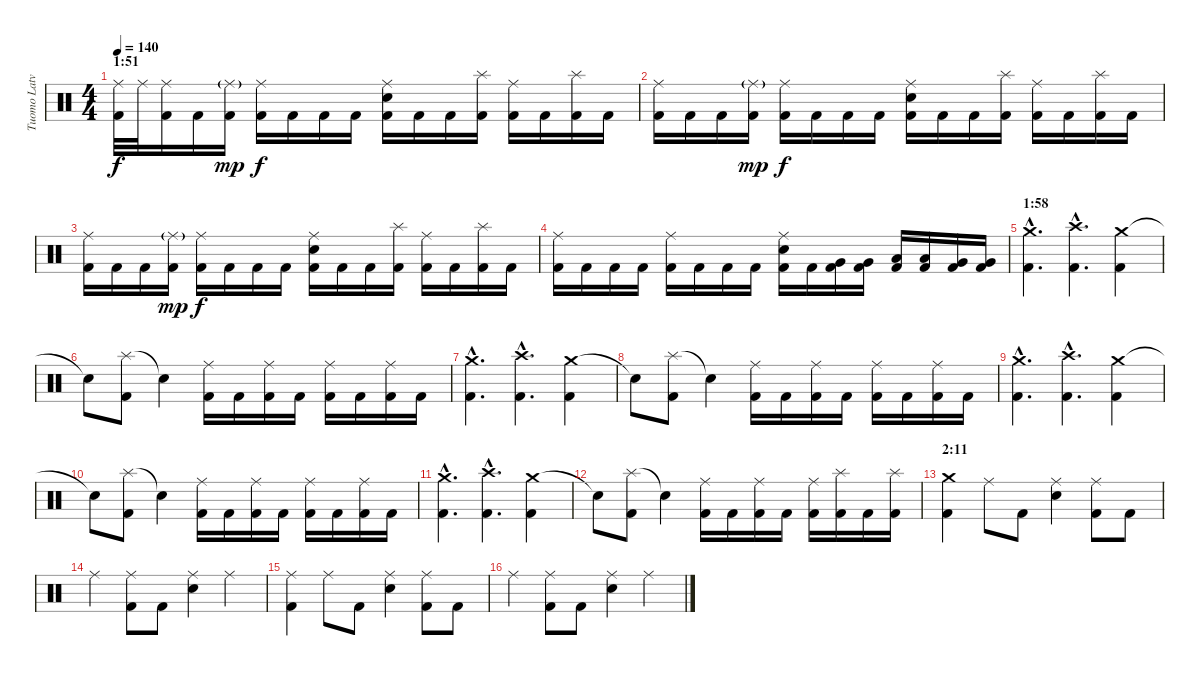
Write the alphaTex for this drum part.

\track ("Tuomo Latvala" "Tuomo Latv") {instrument percussion}
\staff {score}
\articulation defaults
\ts (4 4)
\section ("" "1:51")
\tempo 140
\clef neutral
\ks c
("Ride (middle)" "Kick (hit) 2").32{dy f} "Ride (middle)".32 ("Ride (middle)" "Kick (hit) 2").16 "Kick (hit) 2".16 ("Ride (middle)"{g} "Kick (hit) 2").16{dy mp} ("Ride (middle)" "Kick (hit) 2").16{dy f} "Kick (hit) 2".16 "Kick (hit) 2".16 "Kick (hit) 2".16 ("Ride (middle)" "Electric Snare (hit)" "Kick (hit) 2").16 "Kick (hit) 2".16 "Kick (hit) 2".16 ("Splash (hit)" "Kick (hit) 2").16 ("Ride (middle)" "Kick (hit) 2").16 "Kick (hit) 2".16 ("Splash (hit)" "Kick (hit) 2").16 "Kick (hit) 2".16 |
("Ride (middle)" "Kick (hit) 2").16 "Kick (hit) 2".16 "Kick (hit) 2".16 ("Ride (middle)"{g} "Kick (hit) 2").16{dy mp} ("Ride (middle)" "Kick (hit) 2").16{dy f} "Kick (hit) 2".16 "Kick (hit) 2".16 "Kick (hit) 2".16 ("Ride (middle)" "Electric Snare (hit)" "Kick (hit) 2").16 "Kick (hit) 2".16 "Kick (hit) 2".16 ("Splash (hit)" "Kick (hit) 2").16 ("Ride (middle)" "Kick (hit) 2").16 "Kick (hit) 2".16 ("Splash (hit)" "Kick (hit) 2").16 "Kick (hit) 2".16 |
("Ride (middle)" "Kick (hit) 2").16 "Kick (hit) 2".16 "Kick (hit) 2".16 ("Ride (middle)"{g} "Kick (hit) 2").16{dy mp} ("Ride (middle)" "Kick (hit) 2").16{dy f} "Kick (hit) 2".16 "Kick (hit) 2".16 "Kick (hit) 2".16 ("Ride (middle)" "Electric Snare (hit)" "Kick (hit) 2").16 "Kick (hit) 2".16 "Kick (hit) 2".16 ("Splash (hit)" "Kick (hit) 2").16 ("Ride (middle)" "Kick (hit) 2").16 "Kick (hit) 2".16 ("Splash (hit)" "Kick (hit) 2").16 "Kick (hit) 2".16 |
("Ride (middle)" "Kick (hit) 2").16 "Kick (hit) 2".16 "Kick (hit) 2".16 "Kick (hit) 2".16 ("Ride (middle)" "Kick (hit) 2").16 "Kick (hit) 2".16 "Kick (hit) 2".16 "Kick (hit) 2".16 ("Ride (middle)" "Electric Snare (hit)" "Kick (hit) 2").16 "Kick (hit) 2".16 ("Very Low Tom (hit)" "Kick (hit) 2").16 ("Very Low Tom (hit)" "Kick (hit) 2").16 ("Low Floor Tom (hit)" "Kick (hit) 2").16 ("Low Floor Tom (hit)" "Kick (hit) 2").16 ("Very Low Tom (hit)" "Kick (hit) 2").16 ("Very Low Tom (hit)" "Kick (hit) 2").16 |
\section ("" "1:58")
("Crash medium (hit)"{hac} "Kick (hit) 2"{hac}).4{d} ("Crash high (hit)"{hac} "Kick (hit) 2"{hac}).4{d} ("Crash medium (hit)" "Kick (hit) 2").4 |
"Snare (hit)"{t}.8 ("Splash (hit)" "Kick (hit) 2").8 "Snare (hit)"{t}.4 ("Ride (middle)" "Kick (hit) 2").16 "Kick (hit) 2".16 ("Ride (middle)" "Kick (hit) 2").16 "Kick (hit) 2".16 ("Ride (middle)" "Kick (hit) 2").16 "Kick (hit) 2".16 ("Ride (middle)" "Kick (hit) 2").16 "Kick (hit) 2".16 |
("Crash medium (hit)"{hac} "Kick (hit) 2"{hac}).4{d} ("Crash high (hit)"{hac} "Kick (hit) 2"{hac}).4{d} ("Crash medium (hit)" "Kick (hit) 2").4 |
"Snare (hit)"{t}.8 ("Splash (hit)" "Kick (hit) 2").8 "Snare (hit)"{t}.4 ("Ride (middle)" "Kick (hit) 2").16 "Kick (hit) 2".16 ("Ride (middle)" "Kick (hit) 2").16 "Kick (hit) 2".16 ("Ride (middle)" "Kick (hit) 2").16 "Kick (hit) 2".16 ("Ride (middle)" "Kick (hit) 2").16 "Kick (hit) 2".16 |
("Crash medium (hit)"{hac} "Kick (hit) 2"{hac}).4{d} ("Crash high (hit)"{hac} "Kick (hit) 2"{hac}).4{d} ("Crash medium (hit)" "Kick (hit) 2").4 |
"Snare (hit)"{t}.8 ("Splash (hit)" "Kick (hit) 2").8 "Snare (hit)"{t}.4 ("Ride (middle)" "Kick (hit) 2").16 "Kick (hit) 2".16 ("Ride (middle)" "Kick (hit) 2").16 "Kick (hit) 2".16 ("Ride (middle)" "Kick (hit) 2").16 "Kick (hit) 2".16 ("Ride (middle)" "Kick (hit) 2").16 "Kick (hit) 2".16 |
("Crash medium (hit)"{hac} "Kick (hit) 2"{hac}).4{d} ("Crash high (hit)"{hac} "Kick (hit) 2"{hac}).4{d} ("Crash medium (hit)" "Kick (hit) 2").4 |
"Snare (hit)"{t}.8 ("Splash (hit)" "Kick (hit) 2").8 "Snare (hit)"{t}.4 ("Ride (middle)" "Kick (hit) 2").16 "Kick (hit) 2".16 ("Ride (middle)" "Kick (hit) 2").16 "Kick (hit) 2".16 ("Ride (middle)" "Kick (hit) 2").16 ("Splash (hit)" "Kick (hit) 2").16 "Kick (hit) 2".16 ("Splash (hit)" "Kick (hit) 2").16 |
\section ("" "2:11")
("Crash medium (hit)" "Kick (hit) 2").4 "Ride (middle)".8 "Kick (hit) 2".8 ("Ride (middle)" "Electric Snare (hit)").4 ("Ride (middle)" "Kick (hit) 2").8 "Kick (hit) 2".8 |
"Ride (middle)".4 ("Ride (middle)" "Kick (hit) 2").8 "Kick (hit) 2".8 ("Ride (middle)" "Electric Snare (hit)").4 "Ride (middle)".4 |
("Ride (middle)" "Kick (hit) 2").4 "Ride (middle)".8 "Kick (hit) 2".8 ("Ride (middle)" "Electric Snare (hit)").4 ("Ride (middle)" "Kick (hit) 2").8 "Kick (hit) 2".8 |
"Ride (middle)".4 ("Ride (middle)" "Kick (hit) 2").8 "Kick (hit) 2".8 ("Ride (middle)" "Electric Snare (hit)").4 "Ride (middle)".4
